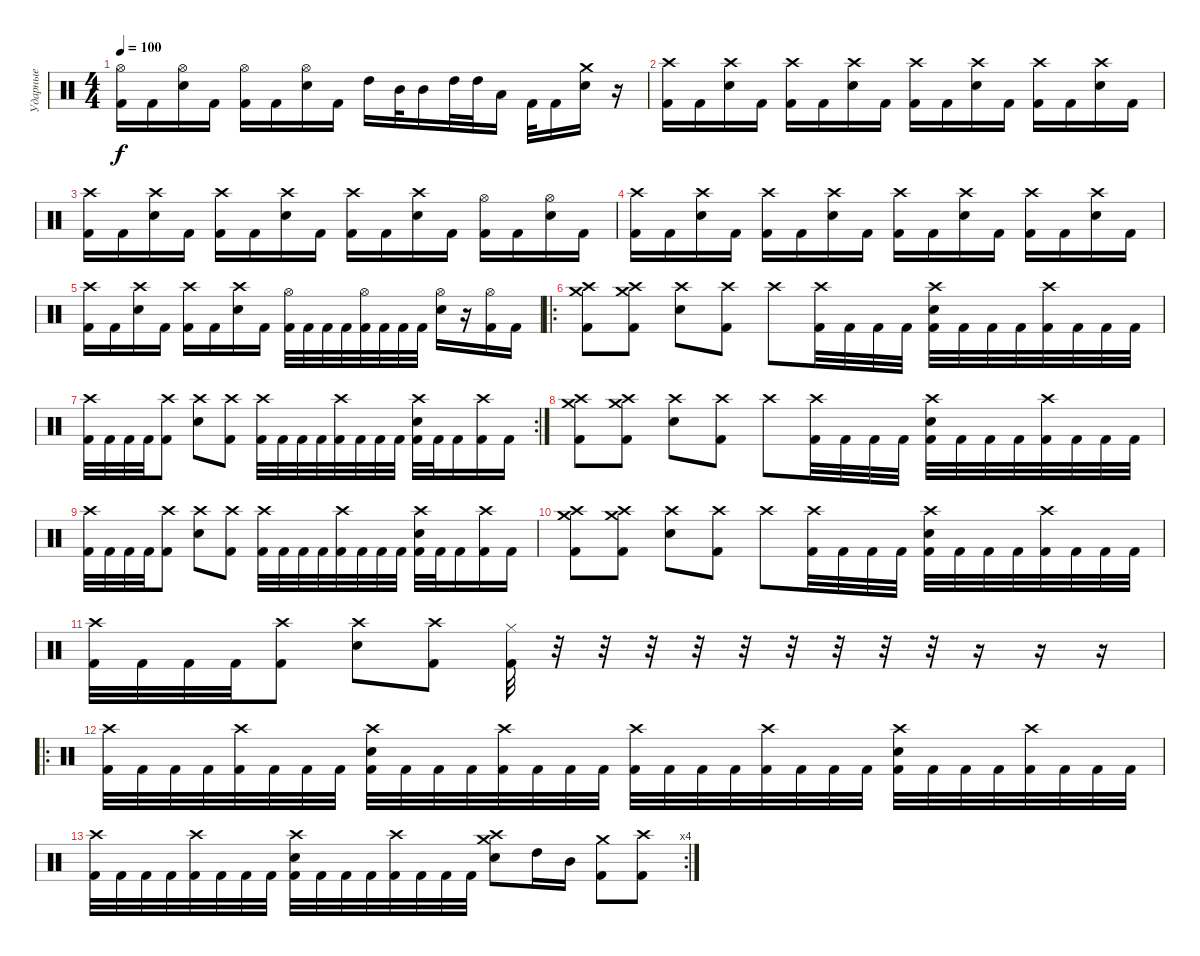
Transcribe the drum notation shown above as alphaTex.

\track ("Ударные" "Ударные") {instrument percussion}
\staff {score}
\articulation defaults
\ts (4 4)
\tempo 100
\clef neutral
\ks c
("Hi-Hat (open)" "Kick (hit) 2").16{dy f} "Kick (hit) 2".16 ("Hi-Hat (open)" "Electric Snare (hit)").16 "Kick (hit) 2".16 ("Hi-Hat (open)" "Kick (hit) 2").16 "Kick (hit) 2".16 ("Hi-Hat (open)" "Electric Snare (hit)").16 "Kick (hit) 2".16 "High Tom (hit)".16 "Mid Tom (hit)".32 "Mid Tom (hit)".16 "High Tom (hit)".32 "High Tom (hit)".32 "Low Tom (hit)".16 "Kick (hit) 2".32 "Kick (hit) 2".16 ("Crash medium (hit)" "Electric Snare (hit)").16 r.16 |
("Crash high (hit)" "Kick (hit) 2").16 "Kick (hit) 2".16 ("Crash high (hit)" "Electric Snare (hit)").16 "Kick (hit) 2".16 ("Crash high (hit)" "Kick (hit) 2").16 "Kick (hit) 2".16 ("Crash high (hit)" "Electric Snare (hit)").16 "Kick (hit) 2".16 ("Crash high (hit)" "Kick (hit) 2").16 "Kick (hit) 2".16 ("Crash high (hit)" "Electric Snare (hit)").16 "Kick (hit) 2".16 ("Crash high (hit)" "Kick (hit) 2").16 "Kick (hit) 2".16 ("Crash high (hit)" "Electric Snare (hit)").16 "Kick (hit) 2".16 |
("Crash high (hit)" "Kick (hit) 2").16 "Kick (hit) 2".16 ("Crash high (hit)" "Electric Snare (hit)").16 "Kick (hit) 2".16 ("Crash high (hit)" "Kick (hit) 2").16 "Kick (hit) 2".16 ("Crash high (hit)" "Electric Snare (hit)").16 "Kick (hit) 2".16 ("Crash high (hit)" "Kick (hit) 2").16 "Kick (hit) 2".16 ("Crash high (hit)" "Electric Snare (hit)").16 "Kick (hit) 2".16 ("Hi-Hat (open)" "Kick (hit) 2").16 "Kick (hit) 2".16 ("Hi-Hat (open)" "Electric Snare (hit)").16 "Kick (hit) 2".16 |
("Crash high (hit)" "Kick (hit) 2").16 "Kick (hit) 2".16 ("Crash high (hit)" "Electric Snare (hit)").16 "Kick (hit) 2".16 ("Crash high (hit)" "Kick (hit) 2").16 "Kick (hit) 2".16 ("Crash high (hit)" "Electric Snare (hit)").16 "Kick (hit) 2".16 ("Crash high (hit)" "Kick (hit) 2").16 "Kick (hit) 2".16 ("Crash high (hit)" "Electric Snare (hit)").16 "Kick (hit) 2".16 ("Crash high (hit)" "Kick (hit) 2").16 "Kick (hit) 2".16 ("Crash high (hit)" "Electric Snare (hit)").16 "Kick (hit) 2".16 |
("Crash high (hit)" "Kick (hit) 2").16 "Kick (hit) 2".16 ("Crash high (hit)" "Electric Snare (hit)").16 "Kick (hit) 2".16 ("Crash high (hit)" "Kick (hit) 2").16 "Kick (hit) 2".16 ("Crash high (hit)" "Electric Snare (hit)").16 "Kick (hit) 2".16 ("Hi-Hat (open)" "Kick (hit) 2").32 "Kick (hit) 2".32 "Kick (hit) 2".32 "Kick (hit) 2".32 ("Hi-Hat (open)" "Kick (hit) 2").32 "Kick (hit) 2".32 "Kick (hit) 2".32 "Kick (hit) 2".32 ("Hi-Hat (open)" "Electric Snare (hit)").16 r.16 ("Hi-Hat (open)" "Kick (hit) 2").16 "Kick (hit) 2".16 |
\ro
("Crash high (hit)" "Crash medium (hit)" "Kick (hit) 2").8 ("Crash high (hit)" "Crash medium (hit)" "Kick (hit) 2").8 ("Crash high (hit)" "Electric Snare (hit)").8 ("Crash high (hit)" "Kick (hit) 2").8 "Crash high (hit)".8 ("Crash high (hit)" "Kick (hit) 2").32 "Kick (hit) 2".32 "Kick (hit) 2".32 "Kick (hit) 2".32 ("Crash high (hit)" "Electric Snare (hit)" "Kick (hit) 2").32 "Kick (hit) 2".32 "Kick (hit) 2".32 "Kick (hit) 2".32 ("Crash high (hit)" "Kick (hit) 2").32 "Kick (hit) 2".32 "Kick (hit) 2".32 "Kick (hit) 2".32 |
\rc 2
("Crash high (hit)" "Kick (hit) 2").32 "Kick (hit) 2".32 "Kick (hit) 2".32 "Kick (hit) 2".32 ("Crash high (hit)" "Kick (hit) 2").8 ("Crash high (hit)" "Electric Snare (hit)").8 ("Crash high (hit)" "Kick (hit) 2").8 ("Crash high (hit)" "Kick (hit) 2").32 "Kick (hit) 2".32 "Kick (hit) 2".32 "Kick (hit) 2".32 ("Crash high (hit)" "Kick (hit) 2").32 "Kick (hit) 2".32 "Kick (hit) 2".32 "Kick (hit) 2".32 ("Crash high (hit)" "Electric Snare (hit)" "Kick (hit) 2").32 "Kick (hit) 2".32 "Kick (hit) 2".16 ("Crash high (hit)" "Kick (hit) 2").16 "Kick (hit) 2".16 |
("Crash high (hit)" "Crash medium (hit)" "Kick (hit) 2").8 ("Crash high (hit)" "Crash medium (hit)" "Kick (hit) 2").8 ("Crash high (hit)" "Electric Snare (hit)").8 ("Crash high (hit)" "Kick (hit) 2").8 "Crash high (hit)".8 ("Crash high (hit)" "Kick (hit) 2").32 "Kick (hit) 2".32 "Kick (hit) 2".32 "Kick (hit) 2".32 ("Crash high (hit)" "Electric Snare (hit)" "Kick (hit) 2").32 "Kick (hit) 2".32 "Kick (hit) 2".32 "Kick (hit) 2".32 ("Crash high (hit)" "Kick (hit) 2").32 "Kick (hit) 2".32 "Kick (hit) 2".32 "Kick (hit) 2".32 |
("Crash high (hit)" "Kick (hit) 2").32 "Kick (hit) 2".32 "Kick (hit) 2".32 "Kick (hit) 2".32 ("Crash high (hit)" "Kick (hit) 2").8 ("Crash high (hit)" "Electric Snare (hit)").8 ("Crash high (hit)" "Kick (hit) 2").8 ("Crash high (hit)" "Kick (hit) 2").32 "Kick (hit) 2".32 "Kick (hit) 2".32 "Kick (hit) 2".32 ("Crash high (hit)" "Kick (hit) 2").32 "Kick (hit) 2".32 "Kick (hit) 2".32 "Kick (hit) 2".32 ("Crash high (hit)" "Electric Snare (hit)" "Kick (hit) 2").32 "Kick (hit) 2".32 "Kick (hit) 2".16 ("Crash high (hit)" "Kick (hit) 2").16 "Kick (hit) 2".16 |
("Crash high (hit)" "Crash medium (hit)" "Kick (hit) 2").8 ("Crash high (hit)" "Crash medium (hit)" "Kick (hit) 2").8 ("Crash high (hit)" "Electric Snare (hit)").8 ("Crash high (hit)" "Kick (hit) 2").8 "Crash high (hit)".8 ("Crash high (hit)" "Kick (hit) 2").32 "Kick (hit) 2".32 "Kick (hit) 2".32 "Kick (hit) 2".32 ("Crash high (hit)" "Electric Snare (hit)" "Kick (hit) 2").32 "Kick (hit) 2".32 "Kick (hit) 2".32 "Kick (hit) 2".32 ("Crash high (hit)" "Kick (hit) 2").32 "Kick (hit) 2".32 "Kick (hit) 2".32 "Kick (hit) 2".32 |
("Crash high (hit)" "Kick (hit) 2").32 "Kick (hit) 2".32 "Kick (hit) 2".32 "Kick (hit) 2".32 ("Crash high (hit)" "Kick (hit) 2").8 ("Crash high (hit)" "Electric Snare (hit)").8 ("Crash high (hit)" "Kick (hit) 2").8 ("Hi-Hat (closed)" "Kick (hit) 2").32 r.32 r.32 r.32 r.32 r.32 r.32 r.32 r.32 r.32 r.16 r.16 r.16 |
\ro
("Crash high (hit)" "Kick (hit) 2").32 "Kick (hit) 2".32 "Kick (hit) 2".32 "Kick (hit) 2".32 ("Crash high (hit)" "Kick (hit) 2").32 "Kick (hit) 2".32 "Kick (hit) 2".32 "Kick (hit) 2".32 ("Crash high (hit)" "Electric Snare (hit)" "Kick (hit) 2").32 "Kick (hit) 2".32 "Kick (hit) 2".32 "Kick (hit) 2".32 ("Crash high (hit)" "Kick (hit) 2").32 "Kick (hit) 2".32 "Kick (hit) 2".32 "Kick (hit) 2".32 ("Crash high (hit)" "Kick (hit) 2").32 "Kick (hit) 2".32 "Kick (hit) 2".32 "Kick (hit) 2".32 ("Crash high (hit)" "Kick (hit) 2").32 "Kick (hit) 2".32 "Kick (hit) 2".32 "Kick (hit) 2".32 ("Crash high (hit)" "Electric Snare (hit)" "Kick (hit) 2").32 "Kick (hit) 2".32 "Kick (hit) 2".32 "Kick (hit) 2".32 ("Crash high (hit)" "Kick (hit) 2").32 "Kick (hit) 2".32 "Kick (hit) 2".32 "Kick (hit) 2".32 |
\rc 4
("Crash high (hit)" "Kick (hit) 2").32 "Kick (hit) 2".32 "Kick (hit) 2".32 "Kick (hit) 2".32 ("Crash high (hit)" "Kick (hit) 2").32 "Kick (hit) 2".32 "Kick (hit) 2".32 "Kick (hit) 2".32 ("Crash high (hit)" "Electric Snare (hit)" "Kick (hit) 2").32 "Kick (hit) 2".32 "Kick (hit) 2".32 "Kick (hit) 2".32 ("Crash high (hit)" "Kick (hit) 2").32 "Kick (hit) 2".32 "Kick (hit) 2".32 "Kick (hit) 2".32 ("Crash high (hit)" "Crash medium (hit)" "Electric Snare (hit)").8 "High Tom (hit)".16 "Mid Tom (hit)".16 ("Crash medium (hit)" "Kick (hit) 2").8 ("Crash high (hit)" "Kick (hit) 2").8
